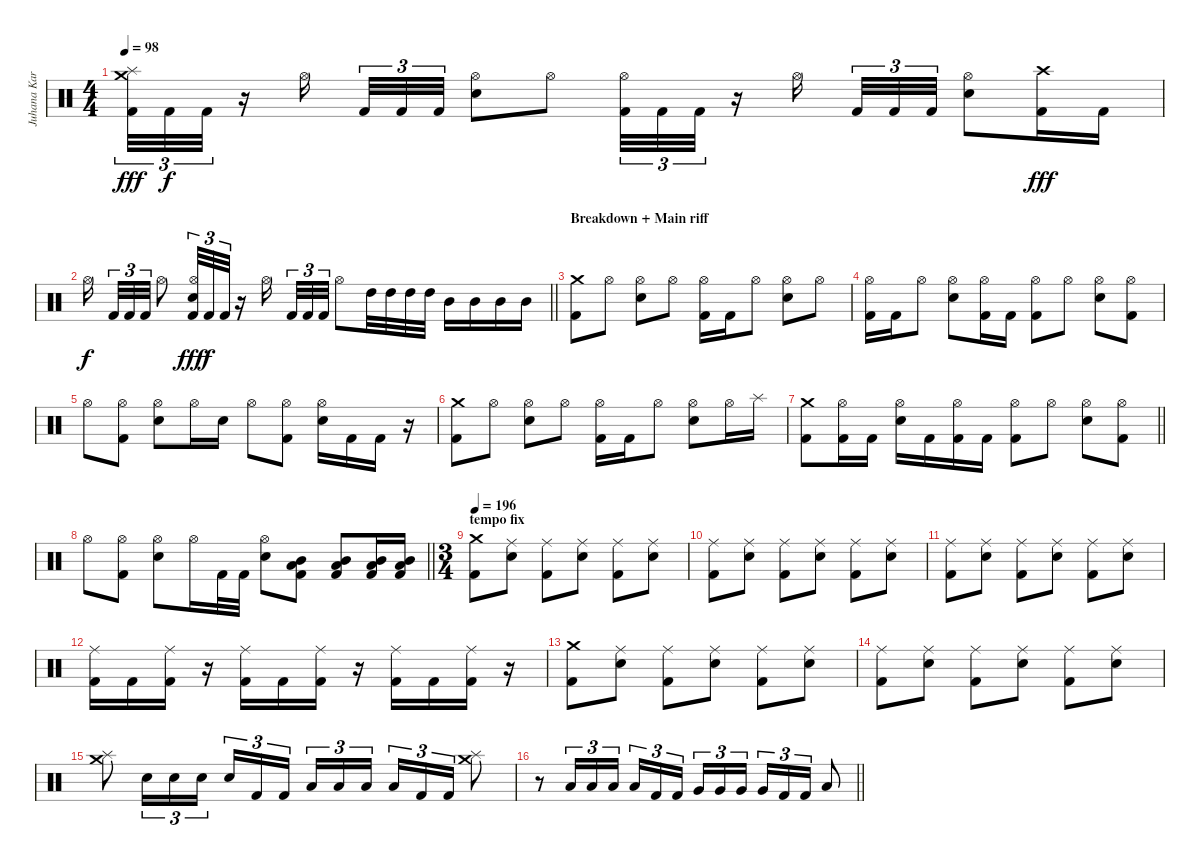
\track ("Juhana Karlsson " "Juhana Kar") {instrument percussion}
\staff {score}
\articulation defaults
\ts (4 4)
\tempo 98
\clef neutral
\ks c
("Crash medium (hit)" "Splash (hit)" "Kick (hit) 2").32{tu (3 2) dy fff} "Kick (hit) 2".32{tu (3 2) dy f} "Kick (hit) 2".32{tu (3 2)} r.16 "Hi-Hat (open)".16{beam splitsecondary} "Kick (hit) 2".32{tu (3 2)} "Kick (hit) 2".32{tu (3 2)} "Kick (hit) 2".32{tu (3 2)} ("Hi-Hat (open)" "Electric Snare (hit)").8 "Hi-Hat (open)".8 ("Hi-Hat (open)" "Kick (hit) 2").32{tu (3 2)} "Kick (hit) 2".32{tu (3 2)} "Kick (hit) 2".32{tu (3 2)} r.16 "Hi-Hat (open)".16{beam splitsecondary} "Kick (hit) 2".32{tu (3 2)} "Kick (hit) 2".32{tu (3 2)} "Kick (hit) 2".32{tu (3 2)} ("Hi-Hat (open)" "Electric Snare (hit)").8 ("Crash high (hit)" "Kick (hit) 2").16{dy fff} "Kick (hit) 2".16 |
\barLineRight lightlight "Hi-Hat (open)".16{dy f beam splitsecondary} "Kick (hit) 2".32{tu (3 2)} "Kick (hit) 2".32{tu (3 2)} "Kick (hit) 2".32{tu (3 2)} "Hi-Hat (open)".8
("Hi-Hat (open)" "Electric Snare (hit)" "Kick (hit) 2").32{tu (3 2) dy fff} "Kick (hit) 2".32{tu (3 2) dy f} "Kick (hit) 2".32{tu (3 2)} r.16 "Hi-Hat (open)".16{beam splitsecondary} "Kick (hit) 2".32{tu (3 2)} "Kick (hit) 2".32{tu (3 2)} "Kick (hit) 2".32{tu (3 2)} "Hi-Hat (open)".8 "High Tom (hit)".32 "High Tom (hit)".32 "High Tom (hit)".32 "High Tom (hit)".32 "Mid Tom (hit)".16 "Mid Tom (hit)".16 "Mid Tom (hit)".16 "Mid Tom (hit)".16 |
\section ("" "Breakdown + Main riff")
("Crash medium (hit)" "Kick (hit) 2").8 "Hi-Hat (open)".8 ("Hi-Hat (open)" "Electric Snare (hit)").8 "Hi-Hat (open)".8 ("Hi-Hat (open)" "Kick (hit) 2").16 "Kick (hit) 2".16 "Hi-Hat (open)".8 ("Hi-Hat (open)" "Electric Snare (hit)").8 "Hi-Hat (open)".8 |
("Hi-Hat (open)" "Kick (hit) 2").16 "Kick (hit) 2".16 "Hi-Hat (open)".8 ("Hi-Hat (open)" "Electric Snare (hit)").8 ("Hi-Hat (open)" "Kick (hit) 2").16 "Kick (hit) 2".16 ("Hi-Hat (open)" "Kick (hit) 2").8 "Hi-Hat (open)".8 ("Hi-Hat (open)" "Electric Snare (hit)").8 ("Hi-Hat (open)" "Kick (hit) 2").8 |
"Hi-Hat (open)".8 ("Hi-Hat (open)" "Kick (hit) 2").8 ("Hi-Hat (open)" "Electric Snare (hit)").8 "Hi-Hat (open)".16 "Electric Snare (hit)".16 "Hi-Hat (open)".8 ("Hi-Hat (open)" "Kick (hit) 2").8 ("Hi-Hat (open)" "Electric Snare (hit)").16 "Kick (hit) 2".16 "Kick (hit) 2".16 r.16 |
("Crash medium (hit)" "Kick (hit) 2").8 "Hi-Hat (open)".8 ("Hi-Hat (open)" "Electric Snare (hit)").8 "Hi-Hat (open)".8 ("Hi-Hat (open)" "Kick (hit) 2").16 "Kick (hit) 2".16 "Hi-Hat (open)".8 ("Hi-Hat (open)" "Electric Snare (hit)").8 "Hi-Hat (open)".16 "Splash (hit)".16 |
\barLineRight lightlight
("Crash medium (hit)" "Kick (hit) 2").8 ("Hi-Hat (open)" "Kick (hit) 2").16 "Kick (hit) 2".16 ("Hi-Hat (open)" "Electric Snare (hit)").16 "Kick (hit) 2".16 ("Hi-Hat (open)" "Kick (hit) 2").16 "Kick (hit) 2".16 ("Hi-Hat (open)" "Kick (hit) 2").8 "Hi-Hat (open)".8 ("Hi-Hat (open)" "Electric Snare (hit)").8 ("Hi-Hat (open)" "Kick (hit) 2").8 |
\barLineRight lightlight "Hi-Hat (open)".8
("Hi-Hat (open)" "Kick (hit) 2").8 ("Hi-Hat (open)" "Electric Snare (hit)").8 "Hi-Hat (open)".16 "Kick (hit) 2".32 "Kick (hit) 2".32 ("Hi-Hat (open)" "Electric Snare (hit)").8 ("Mid Tom (hit)" "Low Tom (hit)" "Kick (hit) 2").8 ("Mid Tom (hit)" "Low Tom (hit)" "Kick (hit) 2").8 ("Mid Tom (hit)" "Low Tom (hit)" "Kick (hit) 2").16 ("Mid Tom (hit)" "Low Tom (hit)" "Kick (hit) 2").16 |
\ts (3 4)
\section ("" "tempo fix")
\tempo 196
("Crash medium (hit)" "Kick (hit) 2").8 ("Ride (middle)" "Electric Snare (hit)").8 ("Ride (middle)" "Kick (hit) 2").8 ("Ride (middle)" "Electric Snare (hit)").8 ("Ride (middle)" "Kick (hit) 2").8 ("Ride (middle)" "Electric Snare (hit)").8 |
("Ride (middle)" "Kick (hit) 2").8 ("Ride (middle)" "Electric Snare (hit)").8 ("Ride (middle)" "Kick (hit) 2").8 ("Ride (middle)" "Electric Snare (hit)").8 ("Ride (middle)" "Kick (hit) 2").8 ("Ride (middle)" "Electric Snare (hit)").8 |
("Ride (middle)" "Kick (hit) 2").8 ("Ride (middle)" "Electric Snare (hit)").8 ("Ride (middle)" "Kick (hit) 2").8 ("Ride (middle)" "Electric Snare (hit)").8 ("Ride (middle)" "Kick (hit) 2").8 ("Ride (middle)" "Electric Snare (hit)").8 |
("Ride (middle)" "Kick (hit) 2").16 "Kick (hit) 2".16 ("Ride (middle)" "Kick (hit) 2").16 r.16 ("Ride (middle)" "Kick (hit) 2").16 "Kick (hit) 2".16 ("Ride (middle)" "Kick (hit) 2").16 r.16 ("Ride (middle)" "Kick (hit) 2").16 "Kick (hit) 2".16 ("Ride (middle)" "Kick (hit) 2").16 r.16 |
("Crash medium (hit)" "Kick (hit) 2").8 ("Ride (middle)" "Electric Snare (hit)").8 ("Ride (middle)" "Kick (hit) 2").8 ("Ride (middle)" "Electric Snare (hit)").8 ("Ride (middle)" "Kick (hit) 2").8 ("Ride (middle)" "Electric Snare (hit)").8 |
("Ride (middle)" "Kick (hit) 2").8 ("Ride (middle)" "Electric Snare (hit)").8 ("Ride (middle)" "Kick (hit) 2").8 ("Ride (middle)" "Electric Snare (hit)").8 ("Ride (middle)" "Kick (hit) 2").8 ("Ride (middle)" "Electric Snare (hit)").8 |
("Splash (hit)" "Crash medium (hit)").8 "Electric Snare (hit)".16{tu (3 2)} "Electric Snare (hit)".16{tu (3 2)} "Electric Snare (hit)".16{tu (3 2)} "Electric Snare (hit)".16{tu (3 2)} "Kick (hit) 2".16{tu (3 2)} "Kick (hit) 2".16{tu (3 2) beam splitsecondary} "Low Tom (hit)".16{tu (3 2)} "Low Tom (hit)".16{tu (3 2)} "Low Tom (hit)".16{tu (3 2)} "Low Tom (hit)".16{tu (3 2)} "Kick (hit) 2".16{tu (3 2)} "Kick (hit) 2".16{tu (3 2)} ("Splash (hit)" "Crash medium (hit)").8 |
\barLineRight lightlight
r.8 "Low Tom (hit)".16{tu (3 2)} "Low Tom (hit)".16{tu (3 2)} "Low Tom (hit)".16{tu (3 2)} "Low Tom (hit)".16{tu (3 2)} "Kick (hit) 2".16{tu (3 2)} "Kick (hit) 2".16{tu (3 2) beam splitsecondary} "Very Low Tom (hit)".16{tu (3 2)} "Very Low Tom (hit)".16{tu (3 2)} "Very Low Tom (hit)".16{tu (3 2)} "Very Low Tom (hit)".16{tu (3 2)} "Kick (hit) 2".16{tu (3 2)} "Kick (hit) 2".16{tu (3 2)} "Low Tom (hit)".8
